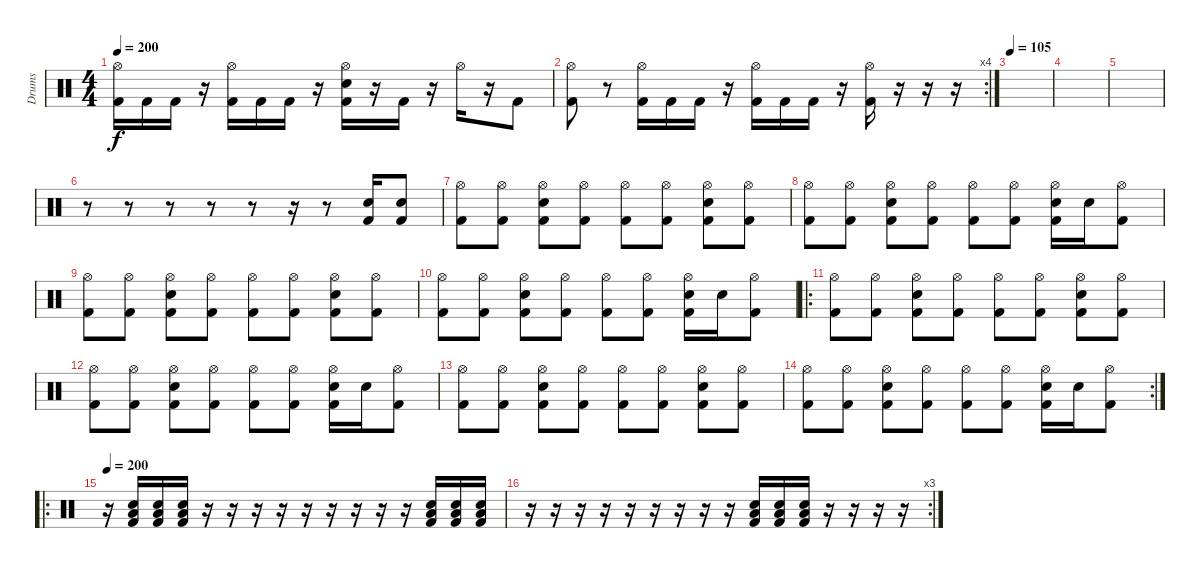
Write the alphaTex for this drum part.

\track ("Drums" "Drums") {instrument percussion}
\staff {score}
\articulation defaults
\ts (4 4)
\tempo 200
\clef neutral
\ks c
("Hi-Hat (open)" "Kick (hit) 2").16{dy f} "Kick (hit) 2".16 "Kick (hit) 2".16 r.16 ("Hi-Hat (open)" "Kick (hit) 2").16 "Kick (hit) 2".16 "Kick (hit) 2".16 r.16 ("Hi-Hat (open)" "Electric Snare (hit)" "Kick (hit) 2").16 r.16 "Kick (hit) 2".16 r.16 "Hi-Hat (open)".16 r.16 "Kick (hit) 2".8 |
\rc 4
("Hi-Hat (open)" "Kick (hit) 2").8 r.8 ("Hi-Hat (open)" "Kick (hit) 2").16 "Kick (hit) 2".16 "Kick (hit) 2".16 r.16 ("Hi-Hat (open)" "Kick (hit) 2").16 "Kick (hit) 2".16 "Kick (hit) 2".16 r.16 ("Hi-Hat (open)" "Kick (hit) 2").16 r.16 r.16 r.16 |
\tempo 105
|
|
|
r.8 r.8 r.8 r.8 r.8 r.16 r.8 ("Electric Snare (hit)" "Kick (hit) 2").16 ("Electric Snare (hit)" "Kick (hit) 2").8 |
("Hi-Hat (open)" "Kick (hit) 2").8 ("Hi-Hat (open)" "Kick (hit) 2").8 ("Hi-Hat (open)" "Electric Snare (hit)" "Kick (hit) 2").8 ("Hi-Hat (open)" "Kick (hit) 2").8 ("Hi-Hat (open)" "Kick (hit) 2").8 ("Hi-Hat (open)" "Kick (hit) 2").8 ("Hi-Hat (open)" "Electric Snare (hit)" "Kick (hit) 2").8 ("Hi-Hat (open)" "Kick (hit) 2").8 |
("Hi-Hat (open)" "Kick (hit) 2").8 ("Hi-Hat (open)" "Kick (hit) 2").8 ("Hi-Hat (open)" "Electric Snare (hit)" "Kick (hit) 2").8 ("Hi-Hat (open)" "Kick (hit) 2").8 ("Hi-Hat (open)" "Kick (hit) 2").8 ("Hi-Hat (open)" "Kick (hit) 2").8 ("Hi-Hat (open)" "Electric Snare (hit)" "Kick (hit) 2").16 "Electric Snare (hit)".16 ("Hi-Hat (open)" "Kick (hit) 2").8 |
("Hi-Hat (open)" "Kick (hit) 2").8 ("Hi-Hat (open)" "Kick (hit) 2").8 ("Hi-Hat (open)" "Electric Snare (hit)" "Kick (hit) 2").8 ("Hi-Hat (open)" "Kick (hit) 2").8 ("Hi-Hat (open)" "Kick (hit) 2").8 ("Hi-Hat (open)" "Kick (hit) 2").8 ("Hi-Hat (open)" "Electric Snare (hit)" "Kick (hit) 2").8 ("Hi-Hat (open)" "Kick (hit) 2").8 |
("Hi-Hat (open)" "Kick (hit) 2").8 ("Hi-Hat (open)" "Kick (hit) 2").8 ("Hi-Hat (open)" "Electric Snare (hit)" "Kick (hit) 2").8 ("Hi-Hat (open)" "Kick (hit) 2").8 ("Hi-Hat (open)" "Kick (hit) 2").8 ("Hi-Hat (open)" "Kick (hit) 2").8 ("Hi-Hat (open)" "Electric Snare (hit)" "Kick (hit) 2").16 "Electric Snare (hit)".16 ("Hi-Hat (open)" "Kick (hit) 2").8 |
\ro
("Hi-Hat (open)" "Kick (hit) 2").8 ("Hi-Hat (open)" "Kick (hit) 2").8 ("Hi-Hat (open)" "Electric Snare (hit)" "Kick (hit) 2").8 ("Hi-Hat (open)" "Kick (hit) 2").8 ("Hi-Hat (open)" "Kick (hit) 2").8 ("Hi-Hat (open)" "Kick (hit) 2").8 ("Hi-Hat (open)" "Electric Snare (hit)" "Kick (hit) 2").8 ("Hi-Hat (open)" "Kick (hit) 2").8 |
("Hi-Hat (open)" "Kick (hit) 2").8 ("Hi-Hat (open)" "Kick (hit) 2").8 ("Hi-Hat (open)" "Electric Snare (hit)" "Kick (hit) 2").8 ("Hi-Hat (open)" "Kick (hit) 2").8 ("Hi-Hat (open)" "Kick (hit) 2").8 ("Hi-Hat (open)" "Kick (hit) 2").8 ("Hi-Hat (open)" "Electric Snare (hit)" "Kick (hit) 2").16 "Electric Snare (hit)".16 ("Hi-Hat (open)" "Kick (hit) 2").8 |
("Hi-Hat (open)" "Kick (hit) 2").8 ("Hi-Hat (open)" "Kick (hit) 2").8 ("Hi-Hat (open)" "Electric Snare (hit)" "Kick (hit) 2").8 ("Hi-Hat (open)" "Kick (hit) 2").8 ("Hi-Hat (open)" "Kick (hit) 2").8 ("Hi-Hat (open)" "Kick (hit) 2").8 ("Hi-Hat (open)" "Electric Snare (hit)" "Kick (hit) 2").8 ("Hi-Hat (open)" "Kick (hit) 2").8 |
\rc 2
("Hi-Hat (open)" "Kick (hit) 2").8 ("Hi-Hat (open)" "Kick (hit) 2").8 ("Hi-Hat (open)" "Electric Snare (hit)" "Kick (hit) 2").8 ("Hi-Hat (open)" "Kick (hit) 2").8 ("Hi-Hat (open)" "Kick (hit) 2").8 ("Hi-Hat (open)" "Kick (hit) 2").8 ("Hi-Hat (open)" "Electric Snare (hit)" "Kick (hit) 2").16 "Electric Snare (hit)".16 ("Hi-Hat (open)" "Kick (hit) 2").8 |
\ro
\tempo 200
r.16 ("Low Tom (hit)" "Electric Snare (hit)" "Kick (hit) 2").16 ("Low Tom (hit)" "Electric Snare (hit)" "Kick (hit) 2").16 ("Low Tom (hit)" "Electric Snare (hit)" "Kick (hit) 2").16 r.16 r.16 r.16 r.16 r.16 r.16 r.16 r.16 r.16 ("Low Tom (hit)" "Electric Snare (hit)" "Kick (hit) 2").16 ("Low Tom (hit)" "Electric Snare (hit)" "Kick (hit) 2").16 ("Low Tom (hit)" "Electric Snare (hit)" "Kick (hit) 2").16 |
\rc 3
r.16 r.16 r.16 r.16 r.16 r.16 r.16 r.16 r.16 ("Low Tom (hit)" "Electric Snare (hit)" "Kick (hit) 2").16 ("Low Tom (hit)" "Electric Snare (hit)" "Kick (hit) 2").16 ("Low Tom (hit)" "Electric Snare (hit)" "Kick (hit) 2").16 r.16 r.16 r.16 r.16
